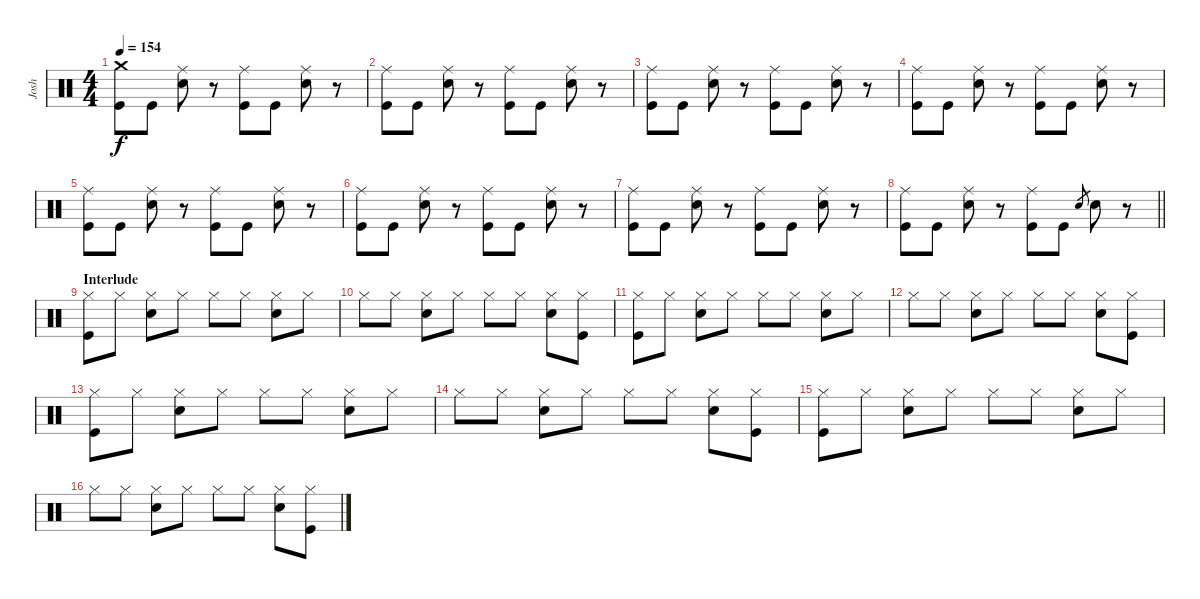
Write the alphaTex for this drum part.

\track ("Josh" "Josh") {instrument percussion}
\staff {score}
\articulation defaults
\ts (4 4)
\tempo 154
\clef neutral
\ks c
("Crash medium (hit)" "Kick (hit)").8{dy f} "Kick (hit)".8 ("Ride (middle)" "Snare (hit) 2").8 r.8 ("Ride (middle)" "Kick (hit)").8 "Kick (hit)".8 ("Ride (middle)" "Snare (hit) 2").8 r.8 |
("Ride (middle)" "Kick (hit)").8 "Kick (hit)".8 ("Ride (middle)" "Snare (hit) 2").8 r.8 ("Ride (middle)" "Kick (hit)").8 "Kick (hit)".8 ("Ride (middle)" "Snare (hit) 2").8 r.8 |
("Ride (middle)" "Kick (hit)").8 "Kick (hit)".8 ("Ride (middle)" "Snare (hit) 2").8 r.8 ("Ride (middle)" "Kick (hit)").8 "Kick (hit)".8 ("Ride (middle)" "Snare (hit) 2").8 r.8 |
("Ride (middle)" "Kick (hit)").8 "Kick (hit)".8 ("Ride (middle)" "Snare (hit) 2").8 r.8 ("Ride (middle)" "Kick (hit)").8 "Kick (hit)".8 ("Ride (middle)" "Snare (hit) 2").8 r.8 |
("Ride (middle)" "Kick (hit)").8 "Kick (hit)".8 ("Ride (middle)" "Snare (hit) 2").8 r.8 ("Ride (middle)" "Kick (hit)").8 "Kick (hit)".8 ("Ride (middle)" "Snare (hit) 2").8 r.8 |
("Ride (middle)" "Kick (hit)").8 "Kick (hit)".8 ("Ride (middle)" "Snare (hit) 2").8 r.8 ("Ride (middle)" "Kick (hit)").8 "Kick (hit)".8 ("Ride (middle)" "Snare (hit) 2").8 r.8 |
("Ride (middle)" "Kick (hit)").8 "Kick (hit)".8 ("Ride (middle)" "Snare (hit) 2").8 r.8 ("Ride (middle)" "Kick (hit)").8 "Kick (hit)".8 ("Ride (middle)" "Snare (hit) 2").8 r.8 |
\barLineRight lightlight
("Ride (middle)" "Kick (hit)").8 "Kick (hit)".8 ("Ride (middle)" "Snare (hit) 2").8 r.8 ("Ride (middle)" "Kick (hit)").8 "Kick (hit)".8 "Snare (hit) 2".8{gr} "Snare (hit) 2".8 r.8 |
\section ("" "Interlude")
("Hi-Hat (closed)" "Kick (hit)").8 "Hi-Hat (closed)".8 ("Hi-Hat (closed)" "Snare (hit) 2").8 "Hi-Hat (closed)".8 "Hi-Hat (closed)".8 "Hi-Hat (closed)".8 ("Hi-Hat (closed)" "Snare (hit) 2").8 "Hi-Hat (closed)".8 |
"Hi-Hat (closed)".8 "Hi-Hat (closed)".8 ("Hi-Hat (closed)" "Snare (hit) 2").8 "Hi-Hat (closed)".8 "Hi-Hat (closed)".8 "Hi-Hat (closed)".8 ("Hi-Hat (closed)" "Snare (hit) 2").8 ("Hi-Hat (closed)" "Kick (hit)").8 |
("Hi-Hat (closed)" "Kick (hit)").8 "Hi-Hat (closed)".8 ("Hi-Hat (closed)" "Snare (hit) 2").8 "Hi-Hat (closed)".8 "Hi-Hat (closed)".8 "Hi-Hat (closed)".8 ("Hi-Hat (closed)" "Snare (hit) 2").8 "Hi-Hat (closed)".8 |
"Hi-Hat (closed)".8 "Hi-Hat (closed)".8 ("Hi-Hat (closed)" "Snare (hit) 2").8 "Hi-Hat (closed)".8 "Hi-Hat (closed)".8 "Hi-Hat (closed)".8 ("Hi-Hat (closed)" "Snare (hit) 2").8 ("Hi-Hat (closed)" "Kick (hit)").8 |
("Hi-Hat (closed)" "Kick (hit)").8 "Hi-Hat (closed)".8 ("Hi-Hat (closed)" "Snare (hit) 2").8 "Hi-Hat (closed)".8 "Hi-Hat (closed)".8 "Hi-Hat (closed)".8 ("Hi-Hat (closed)" "Snare (hit) 2").8 "Hi-Hat (closed)".8 |
"Hi-Hat (closed)".8 "Hi-Hat (closed)".8 ("Hi-Hat (closed)" "Snare (hit) 2").8 "Hi-Hat (closed)".8 "Hi-Hat (closed)".8 "Hi-Hat (closed)".8 ("Hi-Hat (closed)" "Snare (hit) 2").8 ("Hi-Hat (closed)" "Kick (hit)").8 |
("Hi-Hat (closed)" "Kick (hit)").8 "Hi-Hat (closed)".8 ("Hi-Hat (closed)" "Snare (hit) 2").8 "Hi-Hat (closed)".8 "Hi-Hat (closed)".8 "Hi-Hat (closed)".8 ("Hi-Hat (closed)" "Snare (hit) 2").8 "Hi-Hat (closed)".8 |
"Hi-Hat (closed)".8 "Hi-Hat (closed)".8 ("Hi-Hat (closed)" "Snare (hit) 2").8 "Hi-Hat (closed)".8 "Hi-Hat (closed)".8 "Hi-Hat (closed)".8 ("Hi-Hat (closed)" "Snare (hit) 2").8 ("Hi-Hat (closed)" "Kick (hit)").8
